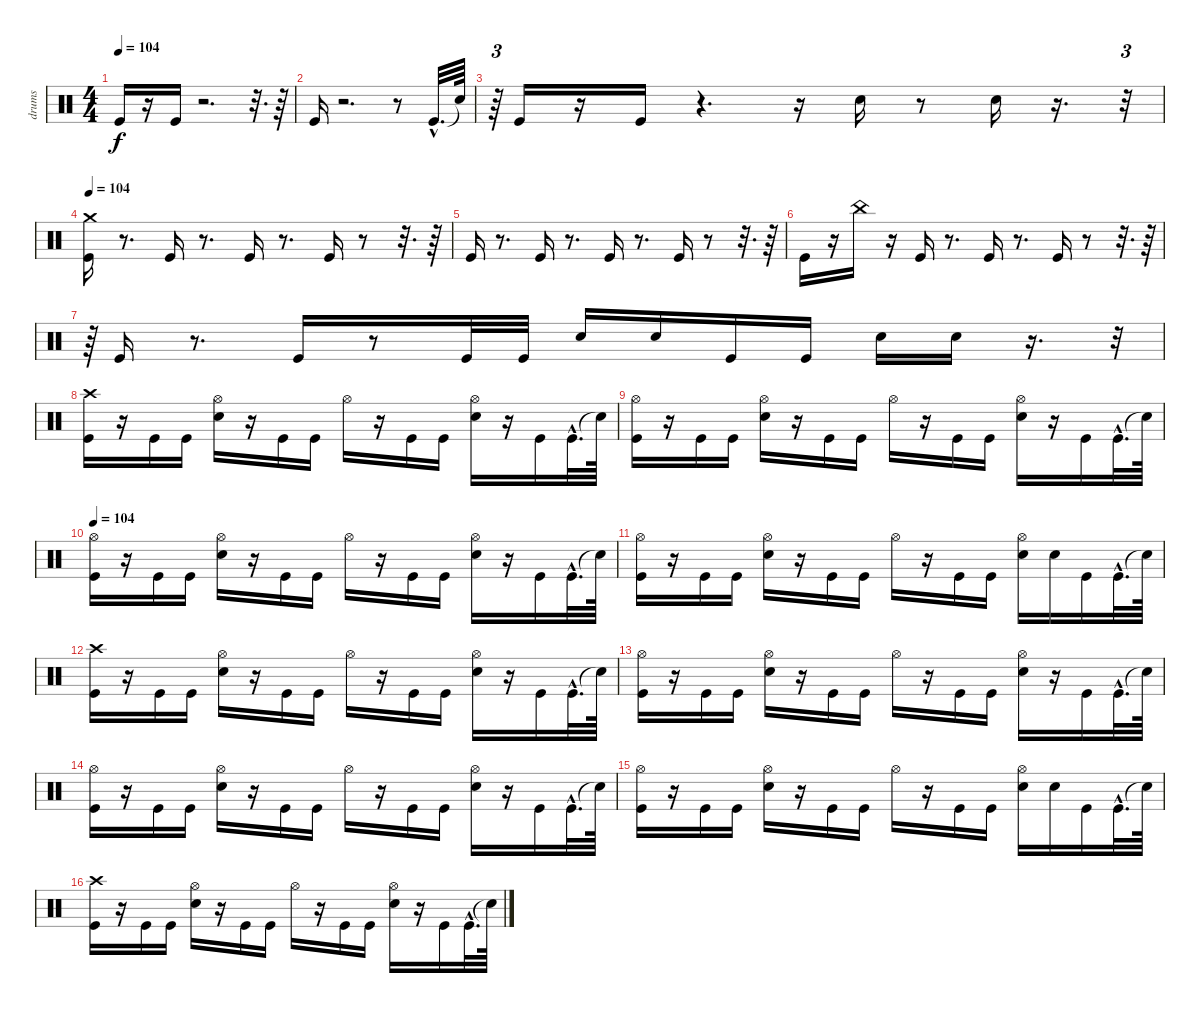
\track ("drums" "drums") {instrument percussion}
\staff {score}
\articulation defaults
\ts (4 4)
\tempo 104
\clef neutral
\ks c "Kick (hit)".16{dy f}
r.16 "Kick (hit)".16 r.2{d} r.32{d} r.64 |
"Kick (hit)".16 r.2{d} r.8 "Kick (hit)"{hac}.32{d} "Snare (hit)"{t}.64 |
r.64{tu (3 2)} "Kick (hit)".16 r.16 "Kick (hit)".16 r.4{d} r.16 "Electric Snare (hit)".16 r.8 "Electric Snare (hit)".16 r.16{d} r.32{tu (3 2)} |
\tempo 104
("Crash medium (hit)" "Kick (hit)").16 r.8{d} "Kick (hit)".16 r.8{d} "Kick (hit)".16 r.8{d} "Kick (hit)".16 r.8 r.32{d} r.64 |
"Kick (hit)".16 r.8{d} "Kick (hit)".16 r.8{d} "Kick (hit)".16 r.8{d} "Kick (hit)".16 r.8 r.32{d} r.64 |
"Kick (hit)".16 r.16 "China (hit)".16 r.16 "Kick (hit)".16 r.8{d} "Kick (hit)".16 r.8{d} "Kick (hit)".16 r.8 r.32{d} r.64 |
r.64{tu (3 2)} "Kick (hit)".16 r.8{d} "Kick (hit)".16 r.8 "Kick (hit)".32 "Kick (hit)".32 "Electric Snare (hit)".16 "Electric Snare (hit)".16 "Kick (hit)".16 "Kick (hit)".16 "Electric Snare (hit)".16 "Electric Snare (hit)".16 r.16{d} r.32{tu (3 2)} |
("Crash high (hit)" "Kick (hit)").16 r.16 "Kick (hit)".16 "Kick (hit)".16 ("Hi-Hat (open)" "Electric Snare (hit)").16 r.16 "Kick (hit)".16 "Kick (hit)".16 "Hi-Hat (open)".16 r.16 "Kick (hit)".16 "Kick (hit)".16 ("Hi-Hat (open)" "Electric Snare (hit)").16 r.16 "Kick (hit)".16 "Kick (hit)"{hac}.32{d} "Snare (hit)"{t}.64 |
("Hi-Hat (open)" "Kick (hit)").16 r.16 "Kick (hit)".16 "Kick (hit)".16 ("Hi-Hat (open)" "Electric Snare (hit)").16 r.16 "Kick (hit)".16 "Kick (hit)".16 "Hi-Hat (open)".16 r.16 "Kick (hit)".16 "Kick (hit)".16 ("Hi-Hat (open)" "Electric Snare (hit)").16 r.16 "Kick (hit)".16 "Kick (hit)"{hac}.32{d} "Snare (hit)"{t}.64 |
\tempo 104
("Hi-Hat (open)" "Kick (hit)").16 r.16 "Kick (hit)".16 "Kick (hit)".16 ("Hi-Hat (open)" "Electric Snare (hit)").16 r.16 "Kick (hit)".16 "Kick (hit)".16 "Hi-Hat (open)".16 r.16 "Kick (hit)".16 "Kick (hit)".16 ("Hi-Hat (open)" "Electric Snare (hit)").16 r.16 "Kick (hit)".16 "Kick (hit)"{hac}.32{d} "Snare (hit)"{t}.64 |
("Hi-Hat (open)" "Kick (hit)").16 r.16 "Kick (hit)".16 "Kick (hit)".16 ("Hi-Hat (open)" "Electric Snare (hit)").16 r.16 "Kick (hit)".16 "Kick (hit)".16 "Hi-Hat (open)".16 r.16 "Kick (hit)".16 "Kick (hit)".16 ("Hi-Hat (open)" "Electric Snare (hit)").16 "Electric Snare (hit)".16 "Kick (hit)".16 "Kick (hit)"{hac}.32{d} "Snare (hit)"{t}.64 |
("Crash high (hit)" "Kick (hit)").16 r.16 "Kick (hit)".16 "Kick (hit)".16 ("Hi-Hat (open)" "Electric Snare (hit)").16 r.16 "Kick (hit)".16 "Kick (hit)".16 "Hi-Hat (open)".16 r.16 "Kick (hit)".16 "Kick (hit)".16 ("Hi-Hat (open)" "Electric Snare (hit)").16 r.16 "Kick (hit)".16 "Kick (hit)"{hac}.32{d} "Snare (hit)"{t}.64 |
("Hi-Hat (open)" "Kick (hit)").16 r.16 "Kick (hit)".16 "Kick (hit)".16 ("Hi-Hat (open)" "Electric Snare (hit)").16 r.16 "Kick (hit)".16 "Kick (hit)".16 "Hi-Hat (open)".16 r.16 "Kick (hit)".16 "Kick (hit)".16 ("Hi-Hat (open)" "Electric Snare (hit)").16 r.16 "Kick (hit)".16 "Kick (hit)"{hac}.32{d} "Snare (hit)"{t}.64 |
("Hi-Hat (open)" "Kick (hit)").16 r.16 "Kick (hit)".16 "Kick (hit)".16 ("Hi-Hat (open)" "Electric Snare (hit)").16 r.16 "Kick (hit)".16 "Kick (hit)".16 "Hi-Hat (open)".16 r.16 "Kick (hit)".16 "Kick (hit)".16 ("Hi-Hat (open)" "Electric Snare (hit)").16 r.16 "Kick (hit)".16 "Kick (hit)"{hac}.32{d} "Snare (hit)"{t}.64 |
("Hi-Hat (open)" "Kick (hit)").16 r.16 "Kick (hit)".16 "Kick (hit)".16 ("Hi-Hat (open)" "Electric Snare (hit)").16 r.16 "Kick (hit)".16 "Kick (hit)".16 "Hi-Hat (open)".16 r.16 "Kick (hit)".16 "Kick (hit)".16 ("Hi-Hat (open)" "Electric Snare (hit)").16 "Electric Snare (hit)".16 "Kick (hit)".16 "Kick (hit)"{hac}.32{d} "Snare (hit)"{t}.64 |
("Crash high (hit)" "Kick (hit)").16 r.16 "Kick (hit)".16 "Kick (hit)".16 ("Hi-Hat (open)" "Electric Snare (hit)").16 r.16 "Kick (hit)".16 "Kick (hit)".16 "Hi-Hat (open)".16 r.16 "Kick (hit)".16 "Kick (hit)".16 ("Hi-Hat (open)" "Electric Snare (hit)").16 r.16 "Kick (hit)".16 "Kick (hit)"{hac}.32{d} "Snare (hit)"{t}.64
